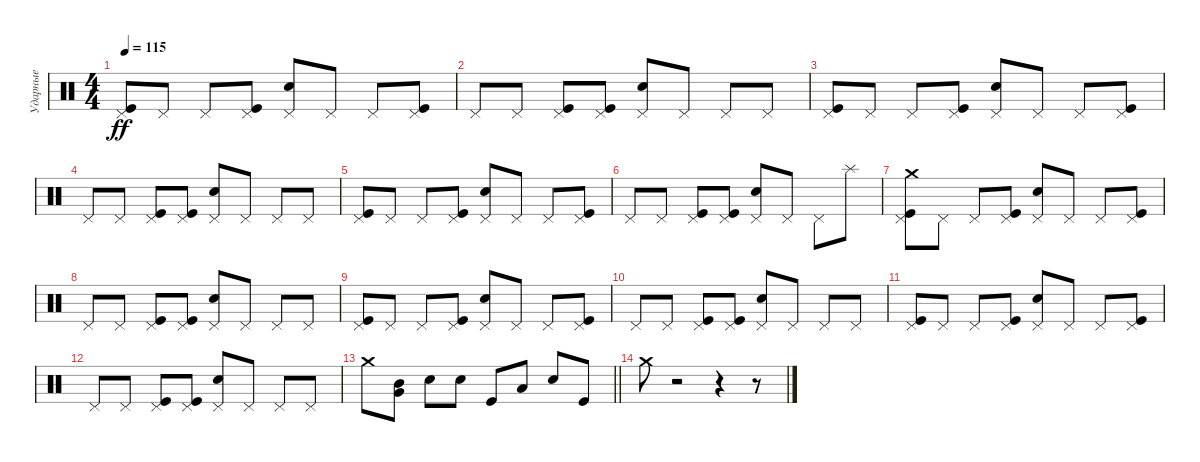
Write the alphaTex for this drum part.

\track ("Ударные" "Ударные") {instrument percussion}
\staff {score}
\articulation defaults
\ts (4 4)
\tempo 115
\clef neutral
\ks c
("Kick (hit)" "Pedal Hi-Hat (hit)").8{dy ff} "Pedal Hi-Hat (hit)".8 "Pedal Hi-Hat (hit)".8 ("Kick (hit)" "Pedal Hi-Hat (hit)").8 ("Electric Snare (hit)" "Pedal Hi-Hat (hit)").8 "Pedal Hi-Hat (hit)".8 "Pedal Hi-Hat (hit)".8 ("Kick (hit)" "Pedal Hi-Hat (hit)").8 |
"Pedal Hi-Hat (hit)".8 "Pedal Hi-Hat (hit)".8 ("Kick (hit)" "Pedal Hi-Hat (hit)").8 ("Kick (hit)" "Pedal Hi-Hat (hit)").8 ("Electric Snare (hit)" "Pedal Hi-Hat (hit)").8 "Pedal Hi-Hat (hit)".8 "Pedal Hi-Hat (hit)".8 "Pedal Hi-Hat (hit)".8 |
("Kick (hit)" "Pedal Hi-Hat (hit)").8 "Pedal Hi-Hat (hit)".8 "Pedal Hi-Hat (hit)".8 ("Kick (hit)" "Pedal Hi-Hat (hit)").8 ("Electric Snare (hit)" "Pedal Hi-Hat (hit)").8 "Pedal Hi-Hat (hit)".8 "Pedal Hi-Hat (hit)".8 ("Kick (hit)" "Pedal Hi-Hat (hit)").8 |
"Pedal Hi-Hat (hit)".8 "Pedal Hi-Hat (hit)".8 ("Kick (hit)" "Pedal Hi-Hat (hit)").8 ("Kick (hit)" "Pedal Hi-Hat (hit)").8 ("Electric Snare (hit)" "Pedal Hi-Hat (hit)").8 "Pedal Hi-Hat (hit)".8 "Pedal Hi-Hat (hit)".8 "Pedal Hi-Hat (hit)".8 |
("Kick (hit)" "Pedal Hi-Hat (hit)").8 "Pedal Hi-Hat (hit)".8 "Pedal Hi-Hat (hit)".8 ("Kick (hit)" "Pedal Hi-Hat (hit)").8 ("Electric Snare (hit)" "Pedal Hi-Hat (hit)").8 "Pedal Hi-Hat (hit)".8 "Pedal Hi-Hat (hit)".8 ("Kick (hit)" "Pedal Hi-Hat (hit)").8 |
"Pedal Hi-Hat (hit)".8 "Pedal Hi-Hat (hit)".8 ("Kick (hit)" "Pedal Hi-Hat (hit)").8 ("Kick (hit)" "Pedal Hi-Hat (hit)").8 ("Electric Snare (hit)" "Pedal Hi-Hat (hit)").8 "Pedal Hi-Hat (hit)".8 "Pedal Hi-Hat (hit)".8 "Splash (hit)".8 |
("Kick (hit)" "Pedal Hi-Hat (hit)" "Crash medium (hit)").8 "Pedal Hi-Hat (hit)".8 "Pedal Hi-Hat (hit)".8 ("Kick (hit)" "Pedal Hi-Hat (hit)").8 ("Electric Snare (hit)" "Pedal Hi-Hat (hit)").8 "Pedal Hi-Hat (hit)".8 "Pedal Hi-Hat (hit)".8 ("Kick (hit)" "Pedal Hi-Hat (hit)").8 |
"Pedal Hi-Hat (hit)".8 "Pedal Hi-Hat (hit)".8 ("Kick (hit)" "Pedal Hi-Hat (hit)").8 ("Kick (hit)" "Pedal Hi-Hat (hit)").8 ("Electric Snare (hit)" "Pedal Hi-Hat (hit)").8 "Pedal Hi-Hat (hit)".8 "Pedal Hi-Hat (hit)".8 "Pedal Hi-Hat (hit)".8 |
("Kick (hit)" "Pedal Hi-Hat (hit)").8 "Pedal Hi-Hat (hit)".8 "Pedal Hi-Hat (hit)".8 ("Kick (hit)" "Pedal Hi-Hat (hit)").8 ("Electric Snare (hit)" "Pedal Hi-Hat (hit)").8 "Pedal Hi-Hat (hit)".8 "Pedal Hi-Hat (hit)".8 ("Kick (hit)" "Pedal Hi-Hat (hit)").8 |
"Pedal Hi-Hat (hit)".8 "Pedal Hi-Hat (hit)".8 ("Kick (hit)" "Pedal Hi-Hat (hit)").8 ("Kick (hit)" "Pedal Hi-Hat (hit)").8 ("Electric Snare (hit)" "Pedal Hi-Hat (hit)").8 "Pedal Hi-Hat (hit)".8 "Pedal Hi-Hat (hit)".8 "Pedal Hi-Hat (hit)".8 |
("Kick (hit)" "Pedal Hi-Hat (hit)").8 "Pedal Hi-Hat (hit)".8 "Pedal Hi-Hat (hit)".8 ("Kick (hit)" "Pedal Hi-Hat (hit)").8 ("Electric Snare (hit)" "Pedal Hi-Hat (hit)").8 "Pedal Hi-Hat (hit)".8 "Pedal Hi-Hat (hit)".8 ("Kick (hit)" "Pedal Hi-Hat (hit)").8 |
"Pedal Hi-Hat (hit)".8 "Pedal Hi-Hat (hit)".8 ("Kick (hit)" "Pedal Hi-Hat (hit)").8 ("Kick (hit)" "Pedal Hi-Hat (hit)").8 ("Electric Snare (hit)" "Pedal Hi-Hat (hit)").8 "Pedal Hi-Hat (hit)".8 "Pedal Hi-Hat (hit)".8 "Pedal Hi-Hat (hit)".8 |
\barLineRight lightlight "Crash medium (hit)".8
("Very Low Tom (hit)" "Mid Tom (hit)").8 "Electric Snare (hit)".8 "Electric Snare (hit)".8 "Kick (hit)".8 "Low Tom (hit)".8 "Electric Snare (hit)".8 "Kick (hit)".8 |
"Crash medium (hit)".8 r.2 r.4 r.8
